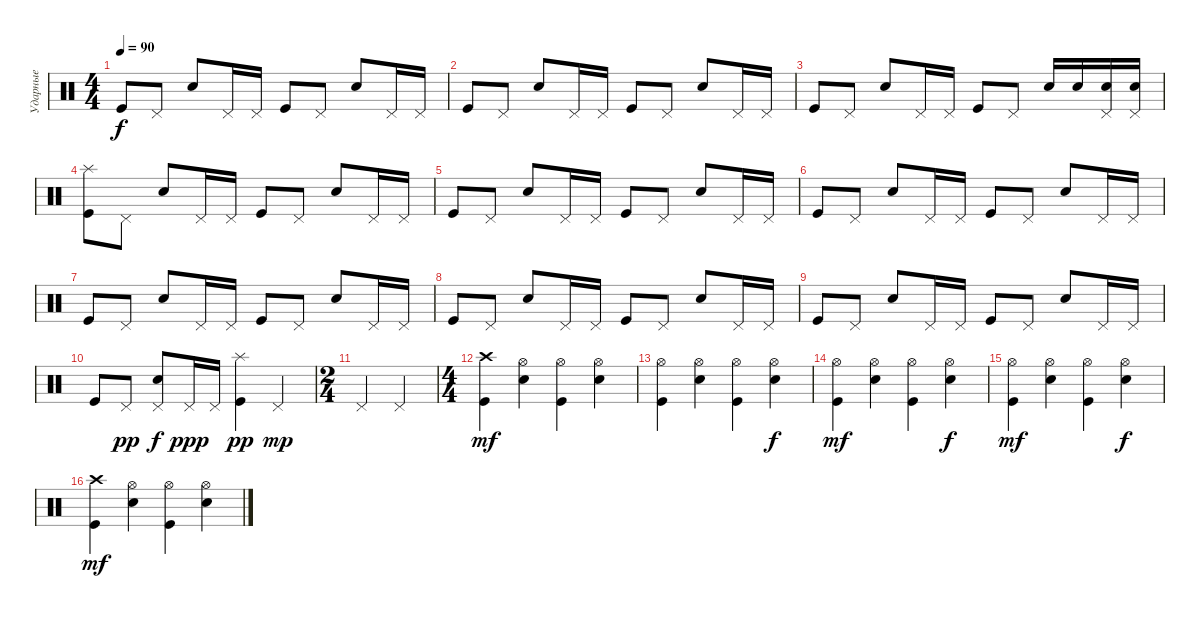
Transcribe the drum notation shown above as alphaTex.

\track ("Ударные" "Ударные") {instrument percussion}
\staff {score}
\articulation defaults
\ts (4 4)
\tempo 90
\clef neutral
\ks c "Kick (hit)".8{dy f} "Pedal Hi-Hat (hit)".8 "Electric Snare (hit)".8 "Pedal Hi-Hat (hit)".16 "Pedal Hi-Hat (hit)".16 "Kick (hit)".8 "Pedal Hi-Hat (hit)".8 "Electric Snare (hit)".8 "Pedal Hi-Hat (hit)".16 "Pedal Hi-Hat (hit)".16
|
"Kick (hit)".8 "Pedal Hi-Hat (hit)".8 "Electric Snare (hit)".8 "Pedal Hi-Hat (hit)".16 "Pedal Hi-Hat (hit)".16 "Kick (hit)".8 "Pedal Hi-Hat (hit)".8 "Electric Snare (hit)".8 "Pedal Hi-Hat (hit)".16 "Pedal Hi-Hat (hit)".16 |
"Kick (hit)".8 "Pedal Hi-Hat (hit)".8 "Electric Snare (hit)".8 "Pedal Hi-Hat (hit)".16 "Pedal Hi-Hat (hit)".16 "Kick (hit)".8 "Pedal Hi-Hat (hit)".8 "Electric Snare (hit)".16 "Electric Snare (hit)".16 ("Pedal Hi-Hat (hit)" "Electric Snare (hit)").16 ("Pedal Hi-Hat (hit)" "Electric Snare (hit)").16 |
("Kick (hit)" "Splash (hit)").8 "Pedal Hi-Hat (hit)".8 "Electric Snare (hit)".8 "Pedal Hi-Hat (hit)".16 "Pedal Hi-Hat (hit)".16 "Kick (hit)".8 "Pedal Hi-Hat (hit)".8 "Electric Snare (hit)".8 "Pedal Hi-Hat (hit)".16 "Pedal Hi-Hat (hit)".16 |
"Kick (hit)".8 "Pedal Hi-Hat (hit)".8 "Electric Snare (hit)".8 "Pedal Hi-Hat (hit)".16 "Pedal Hi-Hat (hit)".16 "Kick (hit)".8 "Pedal Hi-Hat (hit)".8 "Electric Snare (hit)".8 "Pedal Hi-Hat (hit)".16 "Pedal Hi-Hat (hit)".16 |
"Kick (hit)".8 "Pedal Hi-Hat (hit)".8 "Electric Snare (hit)".8 "Pedal Hi-Hat (hit)".16 "Pedal Hi-Hat (hit)".16 "Kick (hit)".8 "Pedal Hi-Hat (hit)".8 "Electric Snare (hit)".8 "Pedal Hi-Hat (hit)".16 "Pedal Hi-Hat (hit)".16 |
"Kick (hit)".8 "Pedal Hi-Hat (hit)".8 "Electric Snare (hit)".8 "Pedal Hi-Hat (hit)".16 "Pedal Hi-Hat (hit)".16 "Kick (hit)".8 "Pedal Hi-Hat (hit)".8 "Electric Snare (hit)".8 "Pedal Hi-Hat (hit)".16 "Pedal Hi-Hat (hit)".16 |
"Kick (hit)".8 "Pedal Hi-Hat (hit)".8 "Electric Snare (hit)".8 "Pedal Hi-Hat (hit)".16 "Pedal Hi-Hat (hit)".16 "Kick (hit)".8 "Pedal Hi-Hat (hit)".8 "Electric Snare (hit)".8 "Pedal Hi-Hat (hit)".16 "Pedal Hi-Hat (hit)".16 |
"Kick (hit)".8 "Pedal Hi-Hat (hit)".8 "Electric Snare (hit)".8 "Pedal Hi-Hat (hit)".16 "Pedal Hi-Hat (hit)".16 "Kick (hit)".8 "Pedal Hi-Hat (hit)".8 "Electric Snare (hit)".8 "Pedal Hi-Hat (hit)".16 "Pedal Hi-Hat (hit)".16 |
"Kick (hit)".8 "Pedal Hi-Hat (hit)".8{dy pp} ("Pedal Hi-Hat (hit)" "Electric Snare (hit)").8{dy f} "Pedal Hi-Hat (hit)".16{dy ppp} "Pedal Hi-Hat (hit)".16 ("Splash (hit)" "Kick (hit)").4{dy pp} "Pedal Hi-Hat (hit)".4{dy mp} |
\ts (2 4)
"Pedal Hi-Hat (hit)".4 "Pedal Hi-Hat (hit)".4 |
\ts (4 4)
("Crash high (hit)" "Kick (hit)").4{dy mf} ("Hi-Hat (open)" "Electric Snare (hit)").4 ("Hi-Hat (open)" "Kick (hit)").4 ("Hi-Hat (open)" "Electric Snare (hit)").4 |
("Hi-Hat (open)" "Kick (hit)").4 ("Hi-Hat (open)" "Electric Snare (hit)").4 ("Hi-Hat (open)" "Kick (hit)").4 ("Hi-Hat (open)" "Electric Snare (hit)").4{dy f} |
("Hi-Hat (open)" "Kick (hit)").4{dy mf} ("Hi-Hat (open)" "Electric Snare (hit)").4 ("Hi-Hat (open)" "Kick (hit)").4 ("Hi-Hat (open)" "Electric Snare (hit)").4{dy f} |
("Hi-Hat (open)" "Kick (hit)").4{dy mf} ("Hi-Hat (open)" "Electric Snare (hit)").4 ("Hi-Hat (open)" "Kick (hit)").4 ("Hi-Hat (open)" "Electric Snare (hit)").4{dy f} |
("Crash high (hit)" "Kick (hit)").4{dy mf} ("Hi-Hat (open)" "Electric Snare (hit)").4 ("Hi-Hat (open)" "Kick (hit)").4 ("Hi-Hat (open)" "Electric Snare (hit)").4
